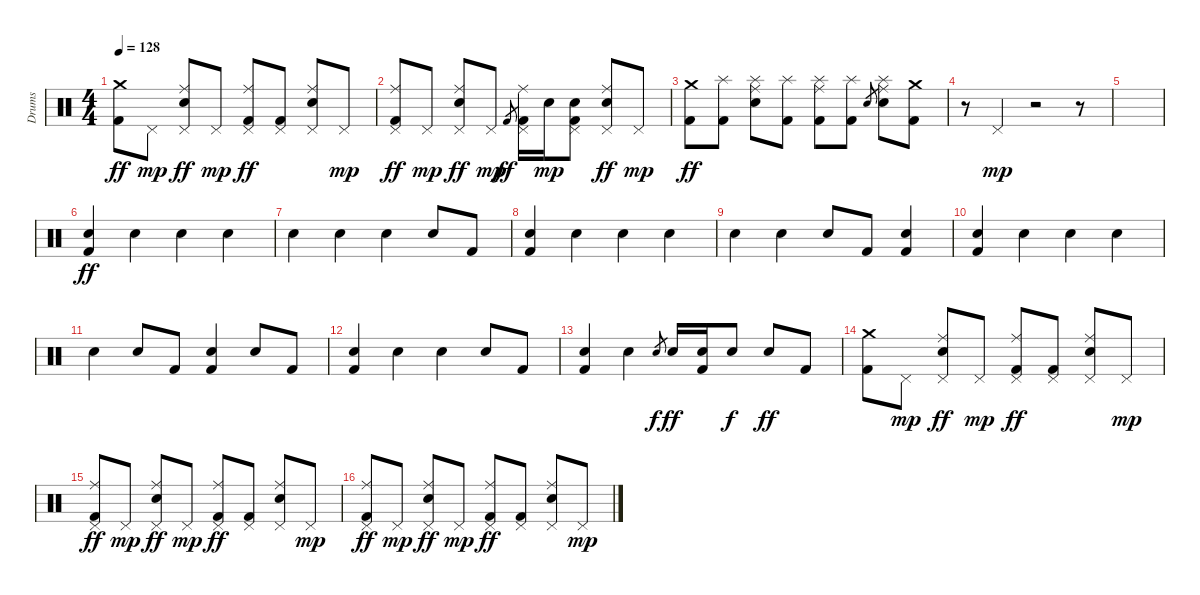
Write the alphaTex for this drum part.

\track ("Drums" "Drums") {instrument percussion}
\staff {score}
\articulation defaults
\ts (4 4)
\tempo 128
\clef neutral
\ks c
("Crash medium (hit)" "Kick (hit) 2").8{dy ff} "Pedal Hi-Hat (hit)".8{dy mp} ("Ride (middle)" "Pedal Hi-Hat (hit)" "Electric Snare (hit)").8{dy ff} "Pedal Hi-Hat (hit)".8{dy mp} ("Ride (middle)" "Pedal Hi-Hat (hit)" "Kick (hit) 2").8{dy ff} ("Pedal Hi-Hat (hit)" "Kick (hit) 2").8 ("Ride (middle)" "Pedal Hi-Hat (hit)" "Electric Snare (hit)").8 "Pedal Hi-Hat (hit)".8{dy mp} |
("Ride (middle)" "Pedal Hi-Hat (hit)" "Kick (hit) 2").8{dy ff} "Pedal Hi-Hat (hit)".8{dy mp} ("Ride (middle)" "Pedal Hi-Hat (hit)" "Electric Snare (hit)").8{dy ff} "Pedal Hi-Hat (hit)".8{dy mp} "Kick (hit) 2".8{gr dy ff} ("Ride (middle)" "Pedal Hi-Hat (hit)" "Kick (hit) 2").16 "Electric Snare (hit)".16{dy mp} ("Pedal Hi-Hat (hit)" "Electric Snare (hit)" "Kick (hit) 2").8 ("Ride (middle)" "Pedal Hi-Hat (hit)" "Electric Snare (hit)").8{dy ff} "Pedal Hi-Hat (hit)".8{dy mp} |
("Crash medium (hit)" "Kick (hit) 2").8{dy ff} ("Splash (hit)" "Kick (hit) 2").8 ("Ride (middle)" "Splash (hit)" "Electric Snare (hit)").8 ("Splash (hit)" "Kick (hit) 2").8 ("Ride (middle)" "Splash (hit)" "Kick (hit) 2").8 ("Splash (hit)" "Kick (hit) 2").8 "Electric Snare (hit)".8{gr} ("Ride (middle)" "Splash (hit)" "Electric Snare (hit)").8 ("Crash medium (hit)" "Kick (hit) 2").8 |
r.8 "Pedal Hi-Hat (hit)".4{dy mp} r.2 r.8 |
|
("Electric Snare (hit)" "Kick (hit) 2").4{dy ff} "Electric Snare (hit)".4 "Electric Snare (hit)".4 "Electric Snare (hit)".4 |
"Electric Snare (hit)".4 "Electric Snare (hit)".4 "Electric Snare (hit)".4 "Electric Snare (hit)".8 "Kick (hit) 2".8 |
("Electric Snare (hit)" "Kick (hit) 2").4 "Electric Snare (hit)".4 "Electric Snare (hit)".4 "Electric Snare (hit)".4 |
"Electric Snare (hit)".4 "Electric Snare (hit)".4 "Electric Snare (hit)".8 "Kick (hit) 2".8 ("Electric Snare (hit)" "Kick (hit) 2").4 |
("Electric Snare (hit)" "Kick (hit) 2").4 "Electric Snare (hit)".4 "Electric Snare (hit)".4 "Electric Snare (hit)".4 |
"Electric Snare (hit)".4 "Electric Snare (hit)".8 "Kick (hit) 2".8 ("Electric Snare (hit)" "Kick (hit) 2").4 "Electric Snare (hit)".8 "Kick (hit) 2".8 |
("Electric Snare (hit)" "Kick (hit) 2").4 "Electric Snare (hit)".4 "Electric Snare (hit)".4 "Electric Snare (hit)".8 "Kick (hit) 2".8 |
("Electric Snare (hit)" "Kick (hit) 2").4 "Electric Snare (hit)".4 "Electric Snare (hit)".8{gr dy f} "Electric Snare (hit)".16{dy ff} ("Electric Snare (hit)" "Kick (hit) 2").16 "Electric Snare (hit)".8{dy f} "Electric Snare (hit)".8{dy ff} "Kick (hit) 2".8 |
("Crash medium (hit)" "Kick (hit) 2").8 "Pedal Hi-Hat (hit)".8{dy mp} ("Ride (middle)" "Pedal Hi-Hat (hit)" "Electric Snare (hit)").8{dy ff} "Pedal Hi-Hat (hit)".8{dy mp} ("Ride (middle)" "Pedal Hi-Hat (hit)" "Kick (hit) 2").8{dy ff} ("Pedal Hi-Hat (hit)" "Kick (hit) 2").8 ("Ride (middle)" "Pedal Hi-Hat (hit)" "Electric Snare (hit)").8 "Pedal Hi-Hat (hit)".8{dy mp} |
("Ride (middle)" "Pedal Hi-Hat (hit)" "Kick (hit) 2").8{dy ff} "Pedal Hi-Hat (hit)".8{dy mp} ("Ride (middle)" "Pedal Hi-Hat (hit)" "Electric Snare (hit)").8{dy ff} "Pedal Hi-Hat (hit)".8{dy mp} ("Ride (middle)" "Pedal Hi-Hat (hit)" "Kick (hit) 2").8{dy ff} ("Pedal Hi-Hat (hit)" "Kick (hit) 2").8 ("Ride (middle)" "Pedal Hi-Hat (hit)" "Electric Snare (hit)").8 "Pedal Hi-Hat (hit)".8{dy mp} |
("Ride (middle)" "Pedal Hi-Hat (hit)" "Kick (hit) 2").8{dy ff} "Pedal Hi-Hat (hit)".8{dy mp} ("Ride (middle)" "Pedal Hi-Hat (hit)" "Electric Snare (hit)").8{dy ff} "Pedal Hi-Hat (hit)".8{dy mp} ("Ride (middle)" "Pedal Hi-Hat (hit)" "Kick (hit) 2").8{dy ff} ("Pedal Hi-Hat (hit)" "Kick (hit) 2").8 ("Ride (middle)" "Pedal Hi-Hat (hit)" "Electric Snare (hit)").8 "Pedal Hi-Hat (hit)".8{dy mp}
